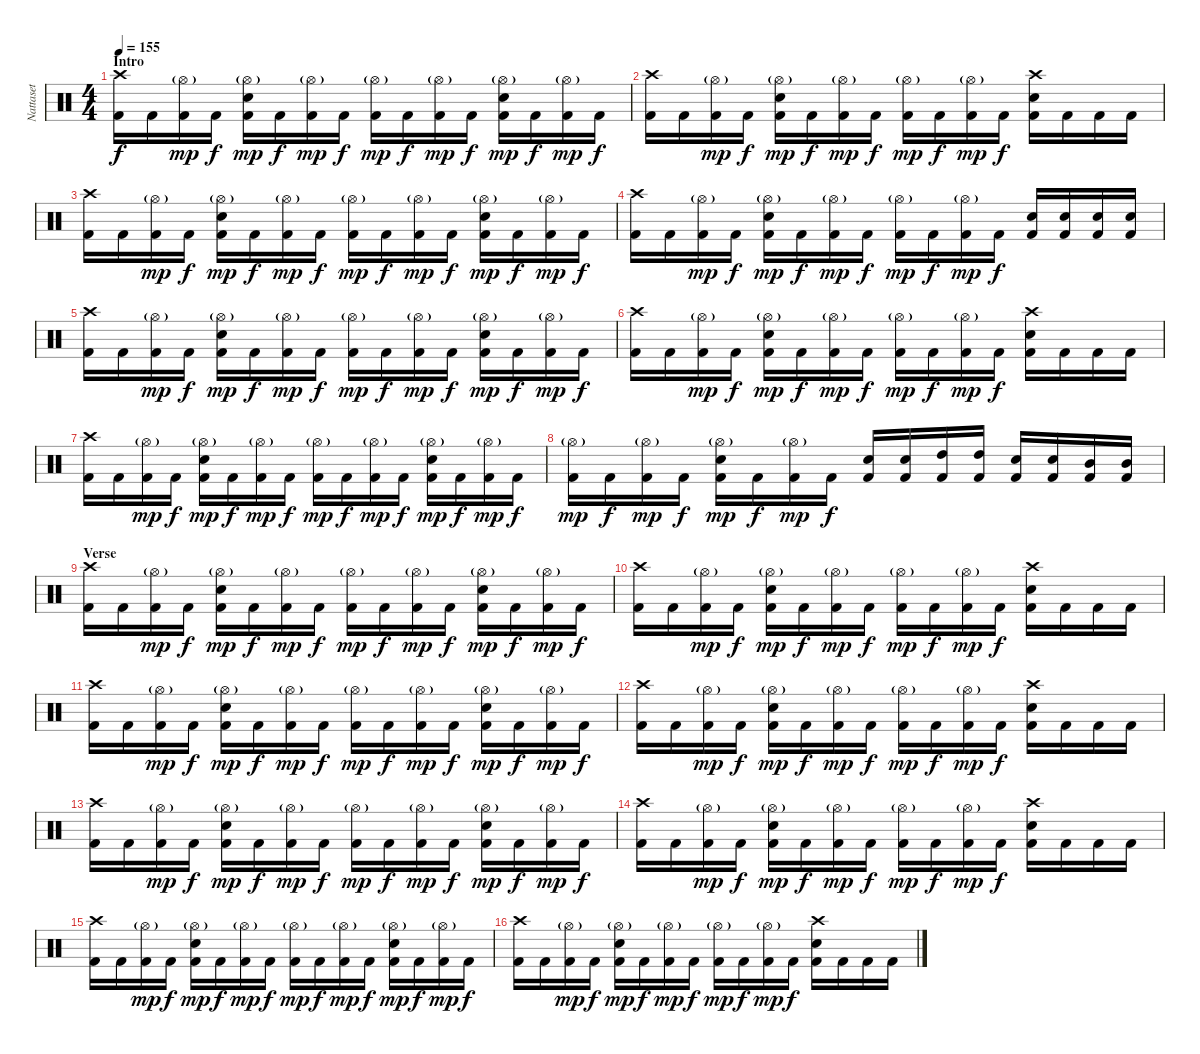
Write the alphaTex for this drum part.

\track ("Nattaset" "Nattaset") {instrument percussion}
\staff {score}
\articulation defaults
\ts (4 4)
\section ("" "Intro")
\tempo 155
\clef neutral
\ks c
("Crash high (hit)" "Kick (hit) 2").16{dy f} "Kick (hit) 2".16 ("Hi-Hat (open)"{g} "Kick (hit) 2").16{dy mp} "Kick (hit) 2".16{dy f} ("Hi-Hat (open)"{g} "Electric Snare (hit)" "Kick (hit) 2").16{dy mp} "Kick (hit) 2".16{dy f} ("Hi-Hat (open)"{g} "Kick (hit) 2").16{dy mp} "Kick (hit) 2".16{dy f} ("Hi-Hat (open)"{g} "Kick (hit) 2").16{dy mp} "Kick (hit) 2".16{dy f} ("Hi-Hat (open)"{g} "Kick (hit) 2").16{dy mp} "Kick (hit) 2".16{dy f} ("Hi-Hat (open)"{g} "Electric Snare (hit)" "Kick (hit) 2").16{dy mp} "Kick (hit) 2".16{dy f} ("Hi-Hat (open)"{g} "Kick (hit) 2").16{dy mp} "Kick (hit) 2".16{dy f} |
("Crash high (hit)" "Kick (hit) 2").16 "Kick (hit) 2".16 ("Hi-Hat (open)"{g} "Kick (hit) 2").16{dy mp} "Kick (hit) 2".16{dy f} ("Hi-Hat (open)"{g} "Electric Snare (hit)" "Kick (hit) 2").16{dy mp} "Kick (hit) 2".16{dy f} ("Hi-Hat (open)"{g} "Kick (hit) 2").16{dy mp} "Kick (hit) 2".16{dy f} ("Hi-Hat (open)"{g} "Kick (hit) 2").16{dy mp} "Kick (hit) 2".16{dy f} ("Hi-Hat (open)"{g} "Kick (hit) 2").16{dy mp} "Kick (hit) 2".16{dy f} ("Crash high (hit)" "Electric Snare (hit)" "Kick (hit) 2").16 "Kick (hit) 2".16 "Kick (hit) 2".16 "Kick (hit) 2".16 |
("Crash high (hit)" "Kick (hit) 2").16 "Kick (hit) 2".16 ("Hi-Hat (open)"{g} "Kick (hit) 2").16{dy mp} "Kick (hit) 2".16{dy f} ("Hi-Hat (open)"{g} "Electric Snare (hit)" "Kick (hit) 2").16{dy mp} "Kick (hit) 2".16{dy f} ("Hi-Hat (open)"{g} "Kick (hit) 2").16{dy mp} "Kick (hit) 2".16{dy f} ("Hi-Hat (open)"{g} "Kick (hit) 2").16{dy mp} "Kick (hit) 2".16{dy f} ("Hi-Hat (open)"{g} "Kick (hit) 2").16{dy mp} "Kick (hit) 2".16{dy f} ("Hi-Hat (open)"{g} "Electric Snare (hit)" "Kick (hit) 2").16{dy mp} "Kick (hit) 2".16{dy f} ("Hi-Hat (open)"{g} "Kick (hit) 2").16{dy mp} "Kick (hit) 2".16{dy f} |
("Crash high (hit)" "Kick (hit) 2").16 "Kick (hit) 2".16 ("Hi-Hat (open)"{g} "Kick (hit) 2").16{dy mp} "Kick (hit) 2".16{dy f} ("Hi-Hat (open)"{g} "Electric Snare (hit)" "Kick (hit) 2").16{dy mp} "Kick (hit) 2".16{dy f} ("Hi-Hat (open)"{g} "Kick (hit) 2").16{dy mp} "Kick (hit) 2".16{dy f} ("Hi-Hat (open)"{g} "Kick (hit) 2").16{dy mp} "Kick (hit) 2".16{dy f} ("Hi-Hat (open)"{g} "Kick (hit) 2").16{dy mp} "Kick (hit) 2".16{dy f} ("Electric Snare (hit)" "Kick (hit) 2").16 ("Electric Snare (hit)" "Kick (hit) 2").16 ("Electric Snare (hit)" "Kick (hit) 2").16 ("Electric Snare (hit)" "Kick (hit) 2").16 |
("Crash high (hit)" "Kick (hit) 2").16 "Kick (hit) 2".16 ("Hi-Hat (open)"{g} "Kick (hit) 2").16{dy mp} "Kick (hit) 2".16{dy f} ("Hi-Hat (open)"{g} "Electric Snare (hit)" "Kick (hit) 2").16{dy mp} "Kick (hit) 2".16{dy f} ("Hi-Hat (open)"{g} "Kick (hit) 2").16{dy mp} "Kick (hit) 2".16{dy f} ("Hi-Hat (open)"{g} "Kick (hit) 2").16{dy mp} "Kick (hit) 2".16{dy f} ("Hi-Hat (open)"{g} "Kick (hit) 2").16{dy mp} "Kick (hit) 2".16{dy f} ("Hi-Hat (open)"{g} "Electric Snare (hit)" "Kick (hit) 2").16{dy mp} "Kick (hit) 2".16{dy f} ("Hi-Hat (open)"{g} "Kick (hit) 2").16{dy mp} "Kick (hit) 2".16{dy f} |
("Crash high (hit)" "Kick (hit) 2").16 "Kick (hit) 2".16 ("Hi-Hat (open)"{g} "Kick (hit) 2").16{dy mp} "Kick (hit) 2".16{dy f} ("Hi-Hat (open)"{g} "Electric Snare (hit)" "Kick (hit) 2").16{dy mp} "Kick (hit) 2".16{dy f} ("Hi-Hat (open)"{g} "Kick (hit) 2").16{dy mp} "Kick (hit) 2".16{dy f} ("Hi-Hat (open)"{g} "Kick (hit) 2").16{dy mp} "Kick (hit) 2".16{dy f} ("Hi-Hat (open)"{g} "Kick (hit) 2").16{dy mp} "Kick (hit) 2".16{dy f} ("Crash high (hit)" "Electric Snare (hit)" "Kick (hit) 2").16 "Kick (hit) 2".16 "Kick (hit) 2".16 "Kick (hit) 2".16 |
("Crash high (hit)" "Kick (hit) 2").16 "Kick (hit) 2".16 ("Hi-Hat (open)"{g} "Kick (hit) 2").16{dy mp} "Kick (hit) 2".16{dy f} ("Hi-Hat (open)"{g} "Electric Snare (hit)" "Kick (hit) 2").16{dy mp} "Kick (hit) 2".16{dy f} ("Hi-Hat (open)"{g} "Kick (hit) 2").16{dy mp} "Kick (hit) 2".16{dy f} ("Hi-Hat (open)"{g} "Kick (hit) 2").16{dy mp} "Kick (hit) 2".16{dy f} ("Hi-Hat (open)"{g} "Kick (hit) 2").16{dy mp} "Kick (hit) 2".16{dy f} ("Hi-Hat (open)"{g} "Electric Snare (hit)" "Kick (hit) 2").16{dy mp} "Kick (hit) 2".16{dy f} ("Hi-Hat (open)"{g} "Kick (hit) 2").16{dy mp} "Kick (hit) 2".16{dy f} |
("Hi-Hat (open)"{g} "Kick (hit) 2").16{dy mp} "Kick (hit) 2".16{dy f} ("Hi-Hat (open)"{g} "Kick (hit) 2").16{dy mp} "Kick (hit) 2".16{dy f} ("Hi-Hat (open)"{g} "Electric Snare (hit)" "Kick (hit) 2").16{dy mp} "Kick (hit) 2".16{dy f} ("Hi-Hat (open)"{g} "Kick (hit) 2").16{dy mp} "Kick (hit) 2".16{dy f} ("Electric Snare (hit)" "Kick (hit) 2").16 ("Electric Snare (hit)" "Kick (hit) 2").16 ("High Tom (hit)" "Kick (hit) 2").16 ("High Tom (hit)" "Kick (hit) 2").16 ("Electric Snare (hit)" "Kick (hit) 2").16 ("Electric Snare (hit)" "Kick (hit) 2").16 ("Mid Tom (hit)" "Kick (hit) 2").16 ("Mid Tom (hit)" "Kick (hit) 2").16 |
\section ("" "Verse")
("Crash high (hit)" "Kick (hit) 2").16 "Kick (hit) 2".16 ("Hi-Hat (open)"{g} "Kick (hit) 2").16{dy mp} "Kick (hit) 2".16{dy f} ("Hi-Hat (open)"{g} "Electric Snare (hit)" "Kick (hit) 2").16{dy mp} "Kick (hit) 2".16{dy f} ("Hi-Hat (open)"{g} "Kick (hit) 2").16{dy mp} "Kick (hit) 2".16{dy f} ("Hi-Hat (open)"{g} "Kick (hit) 2").16{dy mp} "Kick (hit) 2".16{dy f} ("Hi-Hat (open)"{g} "Kick (hit) 2").16{dy mp} "Kick (hit) 2".16{dy f} ("Hi-Hat (open)"{g} "Electric Snare (hit)" "Kick (hit) 2").16{dy mp} "Kick (hit) 2".16{dy f} ("Hi-Hat (open)"{g} "Kick (hit) 2").16{dy mp} "Kick (hit) 2".16{dy f} |
("Crash high (hit)" "Kick (hit) 2").16 "Kick (hit) 2".16 ("Hi-Hat (open)"{g} "Kick (hit) 2").16{dy mp} "Kick (hit) 2".16{dy f} ("Hi-Hat (open)"{g} "Electric Snare (hit)" "Kick (hit) 2").16{dy mp} "Kick (hit) 2".16{dy f} ("Hi-Hat (open)"{g} "Kick (hit) 2").16{dy mp} "Kick (hit) 2".16{dy f} ("Hi-Hat (open)"{g} "Kick (hit) 2").16{dy mp} "Kick (hit) 2".16{dy f} ("Hi-Hat (open)"{g} "Kick (hit) 2").16{dy mp} "Kick (hit) 2".16{dy f} ("Crash high (hit)" "Electric Snare (hit)" "Kick (hit) 2").16 "Kick (hit) 2".16 "Kick (hit) 2".16 "Kick (hit) 2".16 |
("Crash high (hit)" "Kick (hit) 2").16 "Kick (hit) 2".16 ("Hi-Hat (open)"{g} "Kick (hit) 2").16{dy mp} "Kick (hit) 2".16{dy f} ("Hi-Hat (open)"{g} "Electric Snare (hit)" "Kick (hit) 2").16{dy mp} "Kick (hit) 2".16{dy f} ("Hi-Hat (open)"{g} "Kick (hit) 2").16{dy mp} "Kick (hit) 2".16{dy f} ("Hi-Hat (open)"{g} "Kick (hit) 2").16{dy mp} "Kick (hit) 2".16{dy f} ("Hi-Hat (open)"{g} "Kick (hit) 2").16{dy mp} "Kick (hit) 2".16{dy f} ("Hi-Hat (open)"{g} "Electric Snare (hit)" "Kick (hit) 2").16{dy mp} "Kick (hit) 2".16{dy f} ("Hi-Hat (open)"{g} "Kick (hit) 2").16{dy mp} "Kick (hit) 2".16{dy f} |
("Crash high (hit)" "Kick (hit) 2").16 "Kick (hit) 2".16 ("Hi-Hat (open)"{g} "Kick (hit) 2").16{dy mp} "Kick (hit) 2".16{dy f} ("Hi-Hat (open)"{g} "Electric Snare (hit)" "Kick (hit) 2").16{dy mp} "Kick (hit) 2".16{dy f} ("Hi-Hat (open)"{g} "Kick (hit) 2").16{dy mp} "Kick (hit) 2".16{dy f} ("Hi-Hat (open)"{g} "Kick (hit) 2").16{dy mp} "Kick (hit) 2".16{dy f} ("Hi-Hat (open)"{g} "Kick (hit) 2").16{dy mp} "Kick (hit) 2".16{dy f} ("Crash high (hit)" "Electric Snare (hit)" "Kick (hit) 2").16 "Kick (hit) 2".16 "Kick (hit) 2".16 "Kick (hit) 2".16 |
("Crash high (hit)" "Kick (hit) 2").16 "Kick (hit) 2".16 ("Hi-Hat (open)"{g} "Kick (hit) 2").16{dy mp} "Kick (hit) 2".16{dy f} ("Hi-Hat (open)"{g} "Electric Snare (hit)" "Kick (hit) 2").16{dy mp} "Kick (hit) 2".16{dy f} ("Hi-Hat (open)"{g} "Kick (hit) 2").16{dy mp} "Kick (hit) 2".16{dy f} ("Hi-Hat (open)"{g} "Kick (hit) 2").16{dy mp} "Kick (hit) 2".16{dy f} ("Hi-Hat (open)"{g} "Kick (hit) 2").16{dy mp} "Kick (hit) 2".16{dy f} ("Hi-Hat (open)"{g} "Electric Snare (hit)" "Kick (hit) 2").16{dy mp} "Kick (hit) 2".16{dy f} ("Hi-Hat (open)"{g} "Kick (hit) 2").16{dy mp} "Kick (hit) 2".16{dy f} |
("Crash high (hit)" "Kick (hit) 2").16 "Kick (hit) 2".16 ("Hi-Hat (open)"{g} "Kick (hit) 2").16{dy mp} "Kick (hit) 2".16{dy f} ("Hi-Hat (open)"{g} "Electric Snare (hit)" "Kick (hit) 2").16{dy mp} "Kick (hit) 2".16{dy f} ("Hi-Hat (open)"{g} "Kick (hit) 2").16{dy mp} "Kick (hit) 2".16{dy f} ("Hi-Hat (open)"{g} "Kick (hit) 2").16{dy mp} "Kick (hit) 2".16{dy f} ("Hi-Hat (open)"{g} "Kick (hit) 2").16{dy mp} "Kick (hit) 2".16{dy f} ("Crash high (hit)" "Electric Snare (hit)" "Kick (hit) 2").16 "Kick (hit) 2".16 "Kick (hit) 2".16 "Kick (hit) 2".16 |
("Crash high (hit)" "Kick (hit) 2").16 "Kick (hit) 2".16 ("Hi-Hat (open)"{g} "Kick (hit) 2").16{dy mp} "Kick (hit) 2".16{dy f} ("Hi-Hat (open)"{g} "Electric Snare (hit)" "Kick (hit) 2").16{dy mp} "Kick (hit) 2".16{dy f} ("Hi-Hat (open)"{g} "Kick (hit) 2").16{dy mp} "Kick (hit) 2".16{dy f} ("Hi-Hat (open)"{g} "Kick (hit) 2").16{dy mp} "Kick (hit) 2".16{dy f} ("Hi-Hat (open)"{g} "Kick (hit) 2").16{dy mp} "Kick (hit) 2".16{dy f} ("Hi-Hat (open)"{g} "Electric Snare (hit)" "Kick (hit) 2").16{dy mp} "Kick (hit) 2".16{dy f} ("Hi-Hat (open)"{g} "Kick (hit) 2").16{dy mp} "Kick (hit) 2".16{dy f} |
("Crash high (hit)" "Kick (hit) 2").16 "Kick (hit) 2".16 ("Hi-Hat (open)"{g} "Kick (hit) 2").16{dy mp} "Kick (hit) 2".16{dy f} ("Hi-Hat (open)"{g} "Electric Snare (hit)" "Kick (hit) 2").16{dy mp} "Kick (hit) 2".16{dy f} ("Hi-Hat (open)"{g} "Kick (hit) 2").16{dy mp} "Kick (hit) 2".16{dy f} ("Hi-Hat (open)"{g} "Kick (hit) 2").16{dy mp} "Kick (hit) 2".16{dy f} ("Hi-Hat (open)"{g} "Kick (hit) 2").16{dy mp} "Kick (hit) 2".16{dy f} ("Crash high (hit)" "Electric Snare (hit)" "Kick (hit) 2").16 "Kick (hit) 2".16 "Kick (hit) 2".16 "Kick (hit) 2".16
